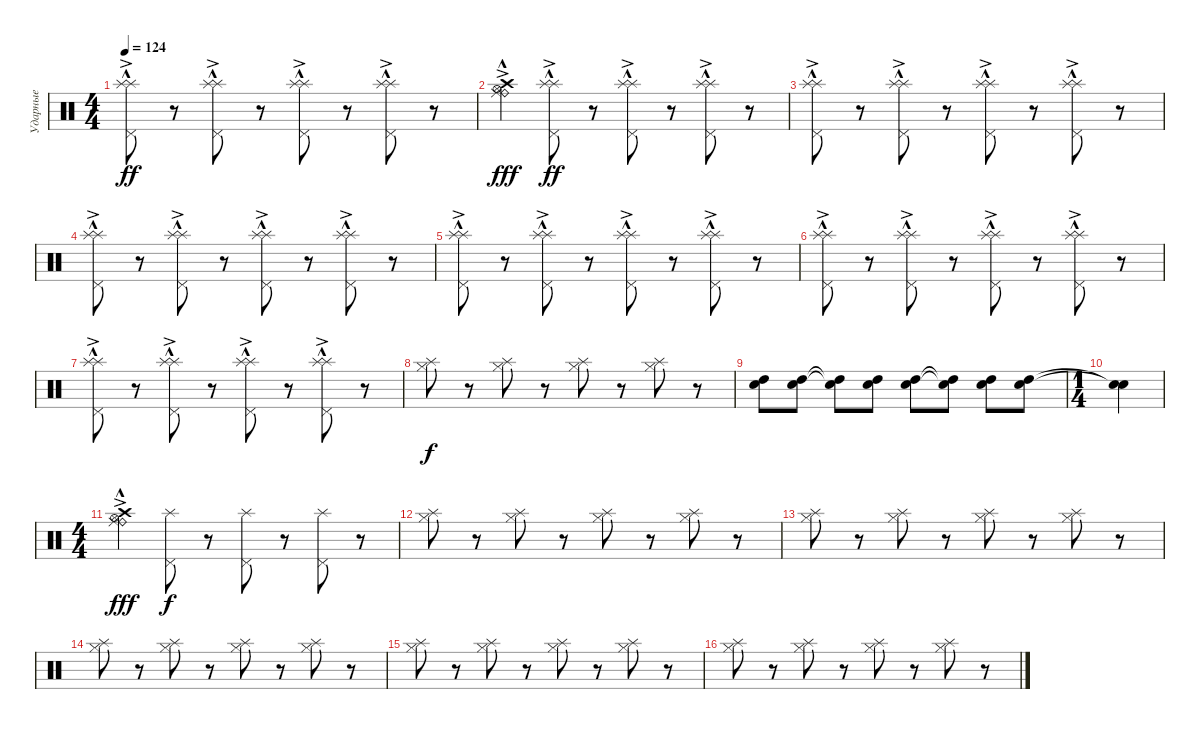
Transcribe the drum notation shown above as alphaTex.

\track ("Ударные" "Ударные") {instrument percussion}
\staff {score}
\articulation defaults
\ts (4 4)
\tempo 124
\clef neutral
\ks c
("Pedal Hi-Hat (hit)" "Splash (hit)"{hac} "Splash (hit)"{ac}).8{dy ff} r.8 ("Pedal Hi-Hat (hit)" "Splash (hit)"{hac} "Splash (hit)"{ac}).8 r.8 ("Pedal Hi-Hat (hit)" "Splash (hit)"{hac} "Splash (hit)"{ac}).8 r.8 ("Pedal Hi-Hat (hit)" "Splash (hit)"{hac} "Splash (hit)"{ac}).8 r.8 |
("Ride (bell)"{ac} "Ride (middle)"{hac} "Crash high (hit)" "Hi-Hat (open)").4{dy fff} ("Pedal Hi-Hat (hit)" "Splash (hit)"{hac} "Splash (hit)"{ac}).8{dy ff} r.8 ("Pedal Hi-Hat (hit)" "Splash (hit)"{hac} "Splash (hit)"{ac}).8 r.8 ("Pedal Hi-Hat (hit)" "Splash (hit)"{hac} "Splash (hit)"{ac}).8 r.8 |
("Pedal Hi-Hat (hit)" "Splash (hit)"{hac} "Splash (hit)"{ac}).8 r.8 ("Pedal Hi-Hat (hit)" "Splash (hit)"{hac} "Splash (hit)"{ac}).8 r.8 ("Pedal Hi-Hat (hit)" "Splash (hit)"{hac} "Splash (hit)"{ac}).8 r.8 ("Pedal Hi-Hat (hit)" "Splash (hit)"{hac} "Splash (hit)"{ac}).8 r.8 |
("Pedal Hi-Hat (hit)" "Splash (hit)"{hac} "Splash (hit)"{ac}).8 r.8 ("Pedal Hi-Hat (hit)" "Splash (hit)"{hac} "Splash (hit)"{ac}).8 r.8 ("Pedal Hi-Hat (hit)" "Splash (hit)"{hac} "Splash (hit)"{ac}).8 r.8 ("Pedal Hi-Hat (hit)" "Splash (hit)"{hac} "Splash (hit)"{ac}).8 r.8 |
("Pedal Hi-Hat (hit)" "Splash (hit)"{hac} "Splash (hit)"{ac}).8 r.8 ("Pedal Hi-Hat (hit)" "Splash (hit)"{hac} "Splash (hit)"{ac}).8 r.8 ("Pedal Hi-Hat (hit)" "Splash (hit)"{hac} "Splash (hit)"{ac}).8 r.8 ("Pedal Hi-Hat (hit)" "Splash (hit)"{hac} "Splash (hit)"{ac}).8 r.8 |
("Pedal Hi-Hat (hit)" "Splash (hit)"{hac} "Splash (hit)"{ac}).8 r.8 ("Pedal Hi-Hat (hit)" "Splash (hit)"{hac} "Splash (hit)"{ac}).8 r.8 ("Pedal Hi-Hat (hit)" "Splash (hit)"{hac} "Splash (hit)"{ac}).8 r.8 ("Pedal Hi-Hat (hit)" "Splash (hit)"{hac} "Splash (hit)"{ac}).8 r.8 |
("Pedal Hi-Hat (hit)" "Splash (hit)"{hac} "Splash (hit)"{ac}).8 r.8 ("Pedal Hi-Hat (hit)" "Splash (hit)"{hac} "Splash (hit)"{ac}).8 r.8 ("Pedal Hi-Hat (hit)" "Splash (hit)"{hac} "Splash (hit)"{ac}).8 r.8 ("Pedal Hi-Hat (hit)" "Splash (hit)"{hac} "Splash (hit)"{ac}).8 r.8 |
("Hi-Hat (closed)" "Splash (hit)").8{dy f} r.8 ("Hi-Hat (closed)" "Splash (hit)").8 r.8 ("Hi-Hat (closed)" "Splash (hit)").8 r.8 ("Hi-Hat (closed)" "Splash (hit)").8 r.8 |
("High Tom (hit)" "Electric Snare (hit)").8 ("High Tom (hit)" "Electric Snare (hit)").8 ("High Tom (hit)"{t} "Electric Snare (hit)"{t}).8 ("High Tom (hit)" "Electric Snare (hit)").8 ("High Tom (hit)" "Electric Snare (hit)").8 ("High Tom (hit)"{t} "Electric Snare (hit)"{t}).8 ("High Tom (hit)" "Electric Snare (hit)").8 ("High Tom (hit)" "Electric Snare (hit)").8 |
\ts (1 4)
("Snare (hit)"{t} "Snare (hit)"{t}).4 |
\ts (4 4)
("Ride (bell)"{ac} "Ride (middle)"{hac} "Crash high (hit)" "Hi-Hat (open)").4{dy fff} ("Pedal Hi-Hat (hit)" "Splash (hit)").8{dy f} r.8 ("Pedal Hi-Hat (hit)" "Splash (hit)").8 r.8 ("Pedal Hi-Hat (hit)" "Splash (hit)").8 r.8 |
("Hi-Hat (closed)" "Splash (hit)").8 r.8 ("Hi-Hat (closed)" "Splash (hit)").8 r.8 ("Hi-Hat (closed)" "Splash (hit)").8 r.8 ("Hi-Hat (closed)" "Splash (hit)").8 r.8 |
("Hi-Hat (closed)" "Splash (hit)").8 r.8 ("Hi-Hat (closed)" "Splash (hit)").8 r.8 ("Hi-Hat (closed)" "Splash (hit)").8 r.8 ("Hi-Hat (closed)" "Splash (hit)").8 r.8 |
("Hi-Hat (closed)" "Splash (hit)").8 r.8 ("Hi-Hat (closed)" "Splash (hit)").8 r.8 ("Hi-Hat (closed)" "Splash (hit)").8 r.8 ("Hi-Hat (closed)" "Splash (hit)").8 r.8 |
("Hi-Hat (closed)" "Splash (hit)").8 r.8 ("Hi-Hat (closed)" "Splash (hit)").8 r.8 ("Hi-Hat (closed)" "Splash (hit)").8 r.8 ("Hi-Hat (closed)" "Splash (hit)").8 r.8 |
("Hi-Hat (closed)" "Splash (hit)").8 r.8 ("Hi-Hat (closed)" "Splash (hit)").8 r.8 ("Hi-Hat (closed)" "Splash (hit)").8 r.8 ("Hi-Hat (closed)" "Splash (hit)").8 r.8
